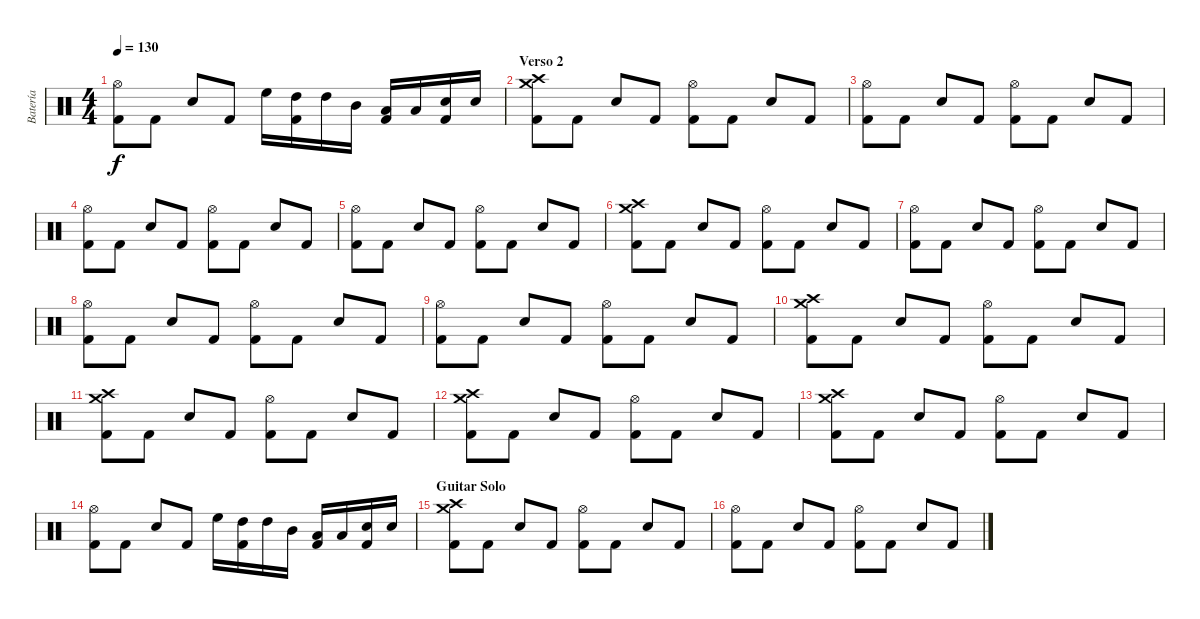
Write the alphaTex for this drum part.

\track ("Batería" "Batería") {instrument percussion}
\staff {score}
\articulation defaults
\ts (4 4)
\tempo 130
\clef neutral
\ks c
("Hi-Hat (open)" "Kick (hit) 2").8{dy f} "Kick (hit) 2".8 "Snare (hit) 2".8 "Kick (hit) 2".8 "High Floor Tom (hit)".16 ("High Tom (hit)" "Kick (hit) 2").16 "High Tom (hit)".16 "Mid Tom (hit)".16 ("Low Tom (hit)" "Kick (hit) 2").16 "Low Tom (hit)".16 ("Snare (hit) 2" "Kick (hit) 2").16 "Snare (hit) 2".16 |
\section ("" "Verso 2")
("Crash medium (hit)" "Crash high (hit)" "Kick (hit) 2").8 "Kick (hit) 2".8 "Snare (hit) 2".8 "Kick (hit) 2".8 ("Hi-Hat (open)" "Kick (hit) 2").8 "Kick (hit) 2".8 "Snare (hit) 2".8 "Kick (hit) 2".8 |
("Hi-Hat (open)" "Kick (hit) 2").8 "Kick (hit) 2".8 "Snare (hit) 2".8 "Kick (hit) 2".8 ("Hi-Hat (open)" "Kick (hit) 2").8 "Kick (hit) 2".8 "Snare (hit) 2".8 "Kick (hit) 2".8 |
("Hi-Hat (open)" "Kick (hit) 2").8 "Kick (hit) 2".8 "Snare (hit) 2".8 "Kick (hit) 2".8 ("Hi-Hat (open)" "Kick (hit) 2").8 "Kick (hit) 2".8 "Snare (hit) 2".8 "Kick (hit) 2".8 |
("Hi-Hat (open)" "Kick (hit) 2").8 "Kick (hit) 2".8 "Snare (hit) 2".8 "Kick (hit) 2".8 ("Hi-Hat (open)" "Kick (hit) 2").8 "Kick (hit) 2".8 "Snare (hit) 2".8 "Kick (hit) 2".8 |
("Crash medium (hit)" "Crash high (hit)" "Kick (hit) 2").8 "Kick (hit) 2".8 "Snare (hit) 2".8 "Kick (hit) 2".8 ("Hi-Hat (open)" "Kick (hit) 2").8 "Kick (hit) 2".8 "Snare (hit) 2".8 "Kick (hit) 2".8 |
("Hi-Hat (open)" "Kick (hit) 2").8 "Kick (hit) 2".8 "Snare (hit) 2".8 "Kick (hit) 2".8 ("Hi-Hat (open)" "Kick (hit) 2").8 "Kick (hit) 2".8 "Snare (hit) 2".8 "Kick (hit) 2".8 |
("Hi-Hat (open)" "Kick (hit) 2").8 "Kick (hit) 2".8 "Snare (hit) 2".8 "Kick (hit) 2".8 ("Hi-Hat (open)" "Kick (hit) 2").8 "Kick (hit) 2".8 "Snare (hit) 2".8 "Kick (hit) 2".8 |
("Hi-Hat (open)" "Kick (hit) 2").8 "Kick (hit) 2".8 "Snare (hit) 2".8 "Kick (hit) 2".8 ("Hi-Hat (open)" "Kick (hit) 2").8 "Kick (hit) 2".8 "Snare (hit) 2".8 "Kick (hit) 2".8 |
("Crash medium (hit)" "Crash high (hit)" "Kick (hit) 2").8 "Kick (hit) 2".8 "Snare (hit) 2".8 "Kick (hit) 2".8 ("Hi-Hat (open)" "Kick (hit) 2").8 "Kick (hit) 2".8 "Snare (hit) 2".8 "Kick (hit) 2".8 |
("Crash medium (hit)" "Crash high (hit)" "Kick (hit) 2").8 "Kick (hit) 2".8 "Snare (hit) 2".8 "Kick (hit) 2".8 ("Hi-Hat (open)" "Kick (hit) 2").8 "Kick (hit) 2".8 "Snare (hit) 2".8 "Kick (hit) 2".8 |
("Crash medium (hit)" "Crash high (hit)" "Kick (hit) 2").8 "Kick (hit) 2".8 "Snare (hit) 2".8 "Kick (hit) 2".8 ("Hi-Hat (open)" "Kick (hit) 2").8 "Kick (hit) 2".8 "Snare (hit) 2".8 "Kick (hit) 2".8 |
("Crash medium (hit)" "Crash high (hit)" "Kick (hit) 2").8 "Kick (hit) 2".8 "Snare (hit) 2".8 "Kick (hit) 2".8 ("Hi-Hat (open)" "Kick (hit) 2").8 "Kick (hit) 2".8 "Snare (hit) 2".8 "Kick (hit) 2".8 |
("Hi-Hat (open)" "Kick (hit) 2").8 "Kick (hit) 2".8 "Snare (hit) 2".8 "Kick (hit) 2".8 "High Floor Tom (hit)".16 ("High Tom (hit)" "Kick (hit) 2").16 "High Tom (hit)".16 "Mid Tom (hit)".16 ("Low Tom (hit)" "Kick (hit) 2").16 "Low Tom (hit)".16 ("Snare (hit) 2" "Kick (hit) 2").16 "Snare (hit) 2".16 |
\section ("" "Guitar Solo")
("Crash medium (hit)" "Crash high (hit)" "Kick (hit) 2").8 "Kick (hit) 2".8 "Snare (hit) 2".8 "Kick (hit) 2".8 ("Hi-Hat (open)" "Kick (hit) 2").8 "Kick (hit) 2".8 "Snare (hit) 2".8 "Kick (hit) 2".8 |
("Hi-Hat (open)" "Kick (hit) 2").8 "Kick (hit) 2".8 "Snare (hit) 2".8 "Kick (hit) 2".8 ("Hi-Hat (open)" "Kick (hit) 2").8 "Kick (hit) 2".8 "Snare (hit) 2".8 "Kick (hit) 2".8
